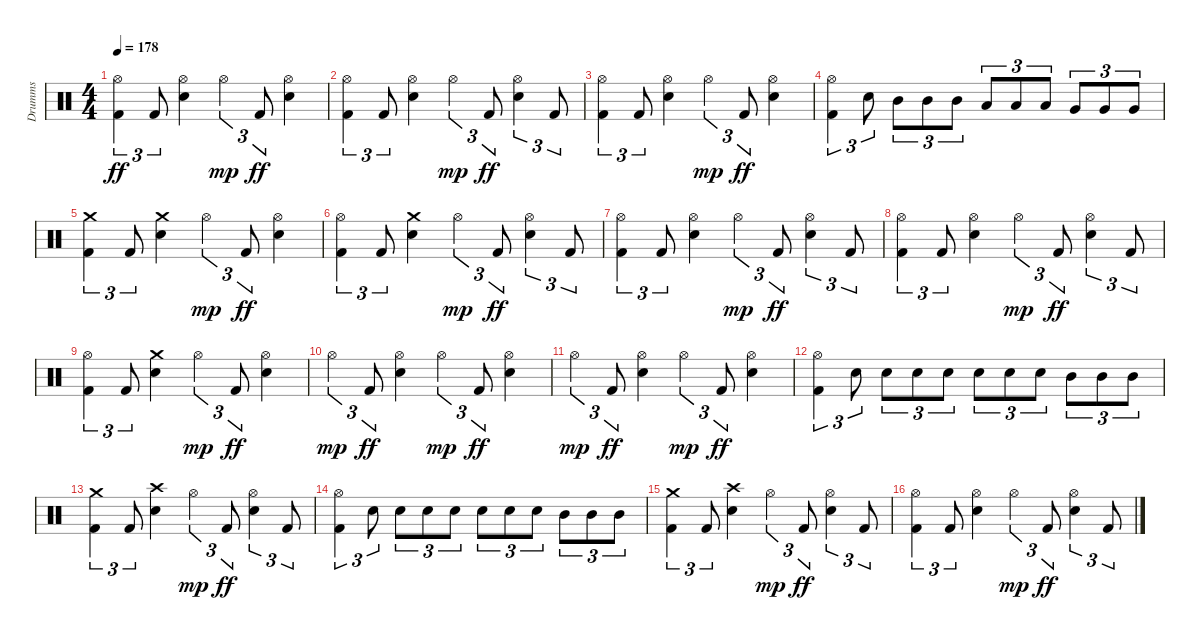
\track ("Drumms" "Drumms") {instrument percussion}
\staff {score}
\articulation defaults
\ts (4 4)
\tempo 178
\clef neutral
\ks c
("Hi-Hat (open)" "Kick (hit) 2").4{tu (3 2) dy ff} "Kick (hit) 2".8{tu (3 2)} ("Hi-Hat (open)" "Electric Snare (hit)").4 "Hi-Hat (open)".4{tu (3 2) dy mp} "Kick (hit) 2".8{tu (3 2) dy ff} ("Hi-Hat (open)" "Electric Snare (hit)").4 |
("Hi-Hat (open)" "Kick (hit) 2").4{tu (3 2)} "Kick (hit) 2".8{tu (3 2)} ("Hi-Hat (open)" "Electric Snare (hit)").4 "Hi-Hat (open)".4{tu (3 2) dy mp} "Kick (hit) 2".8{tu (3 2) dy ff} ("Hi-Hat (open)" "Electric Snare (hit)").4{tu (3 2)} "Kick (hit) 2".8{tu (3 2)} |
("Hi-Hat (open)" "Kick (hit) 2").4{tu (3 2)} "Kick (hit) 2".8{tu (3 2)} ("Hi-Hat (open)" "Electric Snare (hit)").4 "Hi-Hat (open)".4{tu (3 2) dy mp} "Kick (hit) 2".8{tu (3 2) dy ff} ("Hi-Hat (open)" "Electric Snare (hit)").4 |
("Hi-Hat (open)" "Kick (hit) 2").4{tu (3 2)} "Electric Snare (hit)".8{tu (3 2)} "Mid Tom (hit)".8{tu (3 2)} "Mid Tom (hit)".8{tu (3 2)} "Mid Tom (hit)".8{tu (3 2)} "Low Tom (hit)".8{tu (3 2)} "Low Tom (hit)".8{tu (3 2)} "Low Tom (hit)".8{tu (3 2)} "Very Low Tom (hit)".8{tu (3 2)} "Very Low Tom (hit)".8{tu (3 2)} "Very Low Tom (hit)".8{tu (3 2)} |
("Crash medium (hit)" "Kick (hit) 2").4{tu (3 2)} "Kick (hit) 2".8{tu (3 2)} ("Crash medium (hit)" "Electric Snare (hit)").4 "Hi-Hat (open)".4{tu (3 2) dy mp} "Kick (hit) 2".8{tu (3 2) dy ff} ("Hi-Hat (open)" "Electric Snare (hit)").4 |
("Hi-Hat (open)" "Kick (hit) 2").4{tu (3 2)} "Kick (hit) 2".8{tu (3 2)} ("Crash medium (hit)" "Electric Snare (hit)").4 "Hi-Hat (open)".4{tu (3 2) dy mp} "Kick (hit) 2".8{tu (3 2) dy ff} ("Hi-Hat (open)" "Electric Snare (hit)").4{tu (3 2)} "Kick (hit) 2".8{tu (3 2)} |
("Hi-Hat (open)" "Kick (hit) 2").4{tu (3 2)} "Kick (hit) 2".8{tu (3 2)} ("Hi-Hat (open)" "Electric Snare (hit)").4 "Hi-Hat (open)".4{tu (3 2) dy mp} "Kick (hit) 2".8{tu (3 2) dy ff} ("Hi-Hat (open)" "Electric Snare (hit)").4{tu (3 2)} "Kick (hit) 2".8{tu (3 2)} |
("Hi-Hat (open)" "Kick (hit) 2").4{tu (3 2)} "Kick (hit) 2".8{tu (3 2)} ("Hi-Hat (open)" "Electric Snare (hit)").4 "Hi-Hat (open)".4{tu (3 2) dy mp} "Kick (hit) 2".8{tu (3 2) dy ff} ("Hi-Hat (open)" "Electric Snare (hit)").4{tu (3 2)} "Kick (hit) 2".8{tu (3 2)} |
("Hi-Hat (open)" "Kick (hit) 2").4{tu (3 2)} "Kick (hit) 2".8{tu (3 2)} ("Crash medium (hit)" "Electric Snare (hit)").4 "Hi-Hat (open)".4{tu (3 2) dy mp} "Kick (hit) 2".8{tu (3 2) dy ff} ("Hi-Hat (open)" "Electric Snare (hit)").4 |
"Hi-Hat (open)".4{tu (3 2) dy mp} "Kick (hit) 2".8{tu (3 2) dy ff} ("Hi-Hat (open)" "Electric Snare (hit)").4 "Hi-Hat (open)".4{tu (3 2) dy mp} "Kick (hit) 2".8{tu (3 2) dy ff} ("Hi-Hat (open)" "Electric Snare (hit)").4 |
"Hi-Hat (open)".4{tu (3 2) dy mp} "Kick (hit) 2".8{tu (3 2) dy ff} ("Hi-Hat (open)" "Electric Snare (hit)").4 "Hi-Hat (open)".4{tu (3 2) dy mp} "Kick (hit) 2".8{tu (3 2) dy ff} ("Hi-Hat (open)" "Electric Snare (hit)").4 |
("Hi-Hat (open)" "Kick (hit) 2").4{tu (3 2)} "Electric Snare (hit)".8{tu (3 2)} "Electric Snare (hit)".8{tu (3 2)} "Electric Snare (hit)".8{tu (3 2)} "Electric Snare (hit)".8{tu (3 2)} "Electric Snare (hit)".8{tu (3 2)} "Electric Snare (hit)".8{tu (3 2)} "Electric Snare (hit)".8{tu (3 2)} "Mid Tom (hit)".8{tu (3 2)} "Mid Tom (hit)".8{tu (3 2)} "Mid Tom (hit)".8{tu (3 2)} |
("Crash medium (hit)" "Kick (hit) 2").4{tu (3 2)} "Kick (hit) 2".8{tu (3 2)} ("Crash high (hit)" "Electric Snare (hit)").4 "Hi-Hat (open)".4{tu (3 2) dy mp} "Kick (hit) 2".8{tu (3 2) dy ff} ("Hi-Hat (open)" "Electric Snare (hit)").4{tu (3 2)} "Kick (hit) 2".8{tu (3 2)} |
("Hi-Hat (open)" "Kick (hit) 2").4{tu (3 2)} "Electric Snare (hit)".8{tu (3 2)} "Electric Snare (hit)".8{tu (3 2)} "Electric Snare (hit)".8{tu (3 2)} "Electric Snare (hit)".8{tu (3 2)} "Electric Snare (hit)".8{tu (3 2)} "Electric Snare (hit)".8{tu (3 2)} "Electric Snare (hit)".8{tu (3 2)} "Mid Tom (hit)".8{tu (3 2)} "Mid Tom (hit)".8{tu (3 2)} "Mid Tom (hit)".8{tu (3 2)} |
("Crash medium (hit)" "Kick (hit) 2").4{tu (3 2)} "Kick (hit) 2".8{tu (3 2)} ("Crash high (hit)" "Electric Snare (hit)").4 "Hi-Hat (open)".4{tu (3 2) dy mp} "Kick (hit) 2".8{tu (3 2) dy ff} ("Hi-Hat (open)" "Electric Snare (hit)").4{tu (3 2)} "Kick (hit) 2".8{tu (3 2)} |
("Hi-Hat (open)" "Kick (hit) 2").4{tu (3 2)} "Kick (hit) 2".8{tu (3 2)} ("Hi-Hat (open)" "Electric Snare (hit)").4 "Hi-Hat (open)".4{tu (3 2) dy mp} "Kick (hit) 2".8{tu (3 2) dy ff} ("Hi-Hat (open)" "Electric Snare (hit)").4{tu (3 2)} "Kick (hit) 2".8{tu (3 2)}
